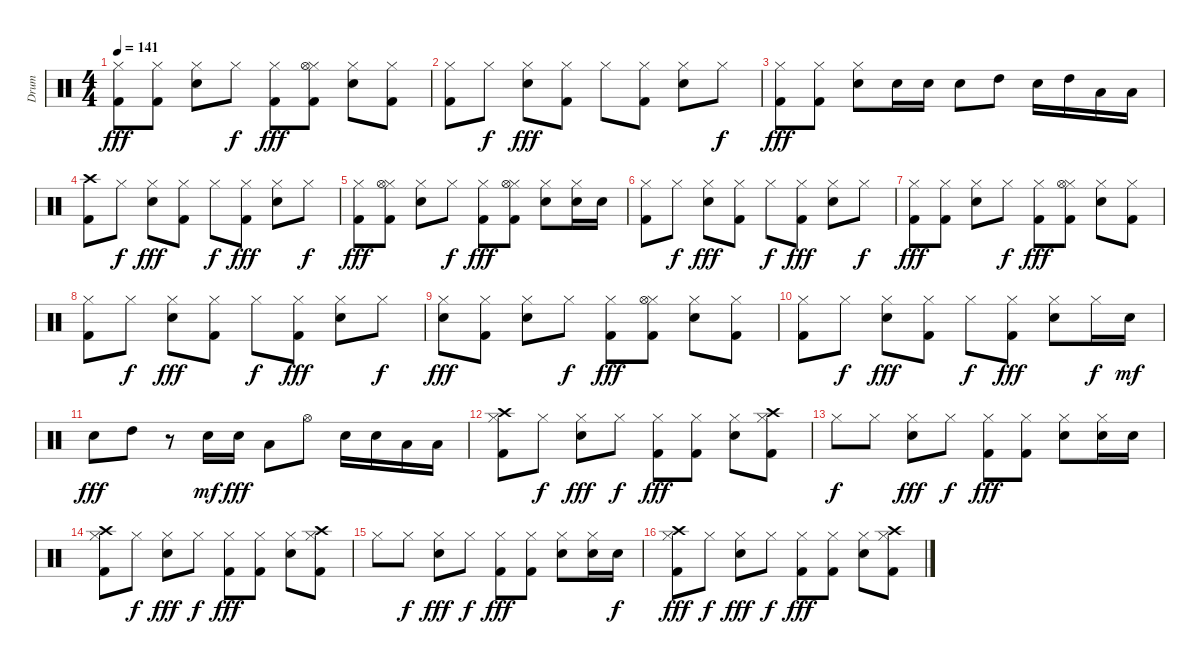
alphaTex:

\track ("Drum" "Drum") {instrument percussion}
\staff {score}
\articulation defaults
\ts (4 4)
\tempo 141
\clef neutral
\ks c
("Hi-Hat (closed)" "Kick (hit) 2").8{dy fff} ("Hi-Hat (closed)" "Kick (hit) 2").8 ("Hi-Hat (closed)" "Snare (hit) 2").8 "Hi-Hat (closed)".8{dy f} ("Hi-Hat (closed)" "Kick (hit) 2").8{dy fff} ("Hi-Hat (closed)" "Kick (hit) 2" "Hi-Hat (open)").8 ("Hi-Hat (closed)" "Snare (hit) 2").8 ("Hi-Hat (closed)" "Kick (hit) 2").8 |
("Hi-Hat (closed)" "Kick (hit) 2").8 "Hi-Hat (closed)".8{dy f} ("Hi-Hat (closed)" "Snare (hit) 2").8{dy fff} ("Hi-Hat (closed)" "Kick (hit) 2").8 "Hi-Hat (closed)".8 ("Hi-Hat (closed)" "Kick (hit) 2").8 ("Hi-Hat (closed)" "Snare (hit) 2").8 "Hi-Hat (closed)".8{dy f} |
("Hi-Hat (closed)" "Kick (hit) 2").8{dy fff} ("Hi-Hat (closed)" "Kick (hit) 2").8 ("Hi-Hat (closed)" "Snare (hit) 2").8 "Snare (hit) 2".16 "Snare (hit) 2".16 "Snare (hit) 2".8 "High Tom (hit)".8 "Snare (hit) 2".16 "High Tom (hit)".16 "Low Tom (hit)".16 "Low Floor Tom (hit)".16 |
("Kick (hit) 2" "Crash high (hit)").8 "Hi-Hat (closed)".8{dy f} ("Snare (hit) 2" "Hi-Hat (closed)").8{dy fff} ("Kick (hit) 2" "Hi-Hat (closed)").8 "Hi-Hat (closed)".8{dy f} ("Kick (hit) 2" "Hi-Hat (closed)").8{dy fff} ("Snare (hit) 2" "Hi-Hat (closed)").8 "Hi-Hat (closed)".8{dy f} |
("Kick (hit) 2" "Hi-Hat (closed)").8{dy fff} ("Kick (hit) 2" "Hi-Hat (closed)" "Hi-Hat (open)").8 ("Snare (hit) 2" "Hi-Hat (closed)").8 "Hi-Hat (closed)".8{dy f} ("Kick (hit) 2" "Hi-Hat (closed)").8{dy fff} ("Kick (hit) 2" "Hi-Hat (closed)" "Hi-Hat (open)").8 ("Snare (hit) 2" "Hi-Hat (closed)").8 ("Snare (hit) 2" "Hi-Hat (closed)").16 "Snare (hit) 2".16 |
("Kick (hit) 2" "Hi-Hat (closed)").8 "Hi-Hat (closed)".8{dy f} ("Snare (hit) 2" "Hi-Hat (closed)").8{dy fff} ("Kick (hit) 2" "Hi-Hat (closed)").8 "Hi-Hat (closed)".8{dy f} ("Kick (hit) 2" "Hi-Hat (closed)").8{dy fff} ("Snare (hit) 2" "Hi-Hat (closed)").8 "Hi-Hat (closed)".8{dy f} |
("Kick (hit) 2" "Hi-Hat (closed)").8{dy fff} ("Kick (hit) 2" "Hi-Hat (closed)").8 ("Snare (hit) 2" "Hi-Hat (closed)").8 "Hi-Hat (closed)".8{dy f} ("Kick (hit) 2" "Hi-Hat (closed)").8{dy fff} ("Kick (hit) 2" "Hi-Hat (closed)" "Hi-Hat (open)").8 ("Snare (hit) 2" "Hi-Hat (closed)").8 ("Kick (hit) 2" "Hi-Hat (closed)").8 |
("Kick (hit) 2" "Hi-Hat (closed)").8 "Hi-Hat (closed)".8{dy f} ("Snare (hit) 2" "Hi-Hat (closed)").8{dy fff} ("Kick (hit) 2" "Hi-Hat (closed)").8 "Hi-Hat (closed)".8{dy f} ("Kick (hit) 2" "Hi-Hat (closed)").8{dy fff} ("Snare (hit) 2" "Hi-Hat (closed)").8 "Hi-Hat (closed)".8{dy f} |
("Snare (hit) 2" "Hi-Hat (closed)").8{dy fff} ("Kick (hit) 2" "Hi-Hat (closed)").8 ("Snare (hit) 2" "Hi-Hat (closed)").8 "Hi-Hat (closed)".8{dy f} ("Kick (hit) 2" "Hi-Hat (closed)").8{dy fff} ("Kick (hit) 2" "Hi-Hat (closed)" "Hi-Hat (open)").8 ("Snare (hit) 2" "Hi-Hat (closed)").8 ("Kick (hit) 2" "Hi-Hat (closed)").8 |
("Kick (hit) 2" "Hi-Hat (closed)").8 "Hi-Hat (closed)".8{dy f} ("Snare (hit) 2" "Hi-Hat (closed)").8{dy fff} ("Kick (hit) 2" "Hi-Hat (closed)").8 "Hi-Hat (closed)".8{dy f} ("Kick (hit) 2" "Hi-Hat (closed)").8{dy fff} ("Snare (hit) 2" "Hi-Hat (closed)").8 "Hi-Hat (closed)".16{dy f} "Snare (hit) 2".16{dy mf} |
"Snare (hit) 2".8{dy fff} "High Tom (hit)".8 r.8 "Snare (hit) 2".16{dy mf} "Snare (hit) 2".16{dy fff} "Low Tom (hit)".8 "Hi-Hat (open)".8 "Snare (hit) 2".16 "Snare (hit) 2".16 "Low Tom (hit)".16 "Low Floor Tom (hit)".16 |
("Kick (hit) 2" "Hi-Hat (closed)" "Crash high (hit)").8 "Hi-Hat (closed)".8{dy f} ("Snare (hit) 2" "Hi-Hat (closed)").8{dy fff} "Hi-Hat (closed)".8{dy f} ("Kick (hit) 2" "Hi-Hat (closed)").8{dy fff} ("Kick (hit) 2" "Hi-Hat (closed)").8 ("Snare (hit) 2" "Hi-Hat (closed)").8 ("Kick (hit) 2" "Hi-Hat (closed)" "Crash high (hit)").8 |
"Hi-Hat (closed)".8{dy f} "Hi-Hat (closed)".8 ("Snare (hit) 2" "Hi-Hat (closed)").8{dy fff} "Hi-Hat (closed)".8{dy f} ("Kick (hit) 2" "Hi-Hat (closed)").8{dy fff} ("Kick (hit) 2" "Hi-Hat (closed)").8 ("Snare (hit) 2" "Hi-Hat (closed)").8 ("Snare (hit) 2" "Hi-Hat (closed)").16 "Snare (hit) 2".16 |
("Hi-Hat (closed)" "Kick (hit) 2" "Crash high (hit)").8 "Hi-Hat (closed)".8{dy f} ("Hi-Hat (closed)" "Snare (hit) 2").8{dy fff} "Hi-Hat (closed)".8{dy f} ("Hi-Hat (closed)" "Kick (hit) 2").8{dy fff} ("Hi-Hat (closed)" "Kick (hit) 2").8 ("Hi-Hat (closed)" "Snare (hit) 2").8 ("Hi-Hat (closed)" "Kick (hit) 2" "Crash high (hit)").8 |
"Hi-Hat (closed)".8 "Hi-Hat (closed)".8{dy f} ("Hi-Hat (closed)" "Snare (hit) 2").8{dy fff} "Hi-Hat (closed)".8{dy f} ("Hi-Hat (closed)" "Kick (hit) 2").8{dy fff} ("Hi-Hat (closed)" "Kick (hit) 2").8 ("Hi-Hat (closed)" "Snare (hit) 2").8 ("Hi-Hat (closed)" "Snare (hit) 2").16 "Snare (hit) 2".16{dy f} |
("Kick (hit) 2" "Hi-Hat (closed)" "Crash high (hit)").8{dy fff} "Hi-Hat (closed)".8{dy f} ("Snare (hit) 2" "Hi-Hat (closed)").8{dy fff} "Hi-Hat (closed)".8{dy f} ("Kick (hit) 2" "Hi-Hat (closed)").8{dy fff} ("Kick (hit) 2" "Hi-Hat (closed)").8 ("Snare (hit) 2" "Hi-Hat (closed)").8 ("Kick (hit) 2" "Hi-Hat (closed)" "Crash high (hit)").8
